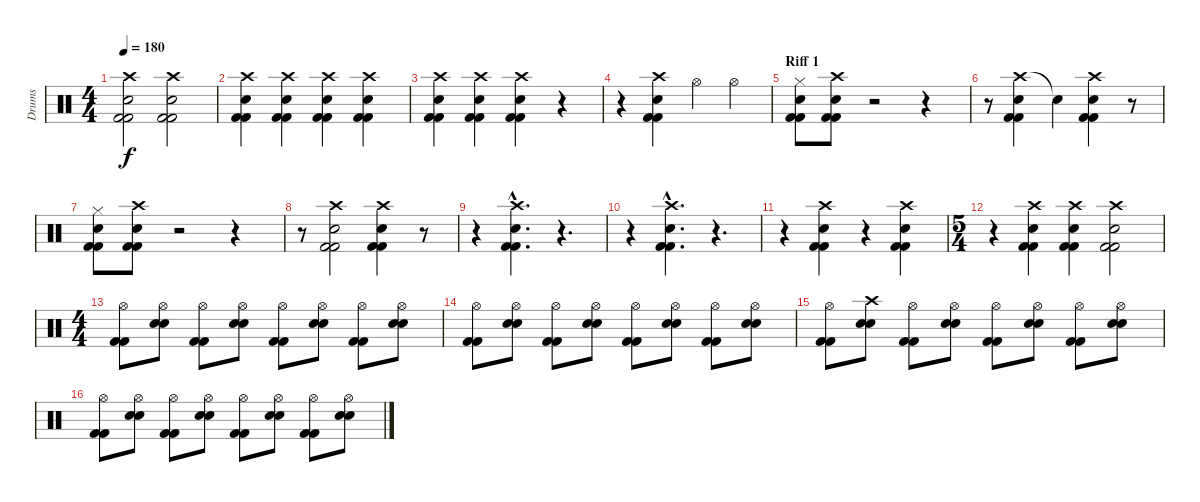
\track ("Drums" "Drums") {instrument percussion}
\staff {score}
\articulation defaults
\ts (4 4)
\tempo 180
\clef neutral
\ks c
("Crash high (hit)" "Snare (hit) 2" "Kick (hit) 2" "Kick (hit) 2").2{dy f} ("Crash high (hit)" "Electric Snare (hit)" "Kick (hit) 2" "Kick (hit) 2").2 |
("Crash high (hit)" "Snare (hit) 2" "Kick (hit) 2" "Kick (hit) 2").4 ("Crash high (hit)" "Electric Snare (hit)" "Kick (hit) 2" "Kick (hit) 2").4 ("Crash high (hit)" "Snare (hit) 2" "Kick (hit) 2" "Kick (hit) 2").4 ("Crash high (hit)" "Electric Snare (hit)" "Kick (hit) 2" "Kick (hit) 2").4 |
("Crash high (hit)" "Snare (hit) 2" "Kick (hit) 2" "Kick (hit) 2").4 ("Crash high (hit)" "Electric Snare (hit)" "Kick (hit) 2" "Kick (hit) 2").4 ("Crash high (hit)" "Snare (hit) 2" "Kick (hit) 2" "Kick (hit) 2").4 r.4 |
r.4 ("Crash high (hit)" "Snare (hit) 2" "Kick (hit) 2" "Kick (hit) 2").4 "Hi-Hat (open)".4 "Hi-Hat (open)".4 |
\section ("" "Riff 1")
("Hi-Hat (closed)" "Snare (hit) 2" "Kick (hit) 2" "Kick (hit) 2").8 ("Crash high (hit)" "Snare (hit) 2" "Kick (hit) 2" "Kick (hit) 2").8 r.2 r.4 |
r.8 ("Crash high (hit)" "Snare (hit) 2" "Kick (hit) 2" "Kick (hit) 2").4 "Snare (hit)"{t}.4 ("Crash high (hit)" "Snare (hit) 2" "Kick (hit) 2" "Kick (hit) 2").4 r.8 |
("Hi-Hat (closed)" "Snare (hit) 2" "Kick (hit) 2" "Kick (hit) 2").8 ("Crash high (hit)" "Snare (hit) 2" "Kick (hit) 2" "Kick (hit) 2").8 r.2 r.4 |
r.8 ("Crash high (hit)" "Snare (hit) 2" "Kick (hit) 2" "Kick (hit) 2").2 ("Crash high (hit)" "Snare (hit) 2" "Kick (hit) 2" "Kick (hit) 2").4 r.8 |
r.4 ("Crash high (hit)"{hac} "Snare (hit) 2"{hac} "Kick (hit) 2"{hac} "Kick (hit) 2"{hac}).4{d} r.4{d} |
r.4 ("Crash high (hit)"{hac} "Snare (hit) 2"{hac} "Kick (hit) 2"{hac} "Kick (hit) 2"{hac}).4{d} r.4{d} |
r.4 ("Crash high (hit)" "Snare (hit) 2" "Kick (hit) 2" "Kick (hit) 2").4 r.4 ("Crash high (hit)" "Snare (hit) 2" "Kick (hit) 2" "Kick (hit) 2").4 |
\ts (5 4)
r.4 ("Crash high (hit)" "Snare (hit) 2" "Kick (hit) 2" "Kick (hit) 2").4 ("Crash high (hit)" "Snare (hit) 2" "Kick (hit) 2" "Kick (hit) 2").4 ("Crash high (hit)" "Snare (hit) 2" "Kick (hit) 2" "Kick (hit) 2").2 |
\ts (4 4)
("Hi-Hat (open)" "Kick (hit) 2" "Kick (hit) 2").8 ("Hi-Hat (open)" "Snare (hit) 2" "Snare (hit) 2").8 ("Hi-Hat (open)" "Kick (hit) 2" "Kick (hit) 2").8 ("Hi-Hat (open)" "Snare (hit) 2" "Snare (hit) 2").8 ("Hi-Hat (open)" "Kick (hit) 2" "Kick (hit) 2").8 ("Hi-Hat (open)" "Snare (hit) 2" "Snare (hit) 2").8 ("Hi-Hat (open)" "Kick (hit) 2" "Kick (hit) 2").8 ("Hi-Hat (open)" "Snare (hit) 2" "Snare (hit) 2").8 |
("Hi-Hat (open)" "Kick (hit) 2" "Kick (hit) 2").8 ("Hi-Hat (open)" "Snare (hit) 2" "Snare (hit) 2").8 ("Hi-Hat (open)" "Kick (hit) 2" "Kick (hit) 2").8 ("Hi-Hat (open)" "Snare (hit) 2" "Snare (hit) 2").8 ("Hi-Hat (open)" "Kick (hit) 2" "Kick (hit) 2").8 ("Hi-Hat (open)" "Snare (hit) 2" "Snare (hit) 2").8 ("Hi-Hat (open)" "Kick (hit) 2" "Kick (hit) 2").8 ("Hi-Hat (open)" "Snare (hit) 2" "Snare (hit) 2").8 |
("Hi-Hat (open)" "Kick (hit) 2" "Kick (hit) 2").8 ("Crash high (hit)" "Snare (hit) 2" "Snare (hit) 2").8 ("Hi-Hat (open)" "Kick (hit) 2" "Kick (hit) 2").8 ("Hi-Hat (open)" "Snare (hit) 2" "Snare (hit) 2").8 ("Hi-Hat (open)" "Kick (hit) 2" "Kick (hit) 2").8 ("Hi-Hat (open)" "Snare (hit) 2" "Snare (hit) 2").8 ("Hi-Hat (open)" "Kick (hit) 2" "Kick (hit) 2").8 ("Hi-Hat (open)" "Snare (hit) 2" "Snare (hit) 2").8 |
("Hi-Hat (open)" "Kick (hit) 2" "Kick (hit) 2").8 ("Hi-Hat (open)" "Snare (hit) 2" "Snare (hit) 2").8 ("Hi-Hat (open)" "Kick (hit) 2" "Kick (hit) 2").8 ("Hi-Hat (open)" "Snare (hit) 2" "Snare (hit) 2").8 ("Hi-Hat (open)" "Kick (hit) 2" "Kick (hit) 2").8 ("Hi-Hat (open)" "Snare (hit) 2" "Snare (hit) 2").8 ("Hi-Hat (open)" "Kick (hit) 2" "Kick (hit) 2").8 ("Hi-Hat (open)" "Snare (hit) 2" "Snare (hit) 2").8
